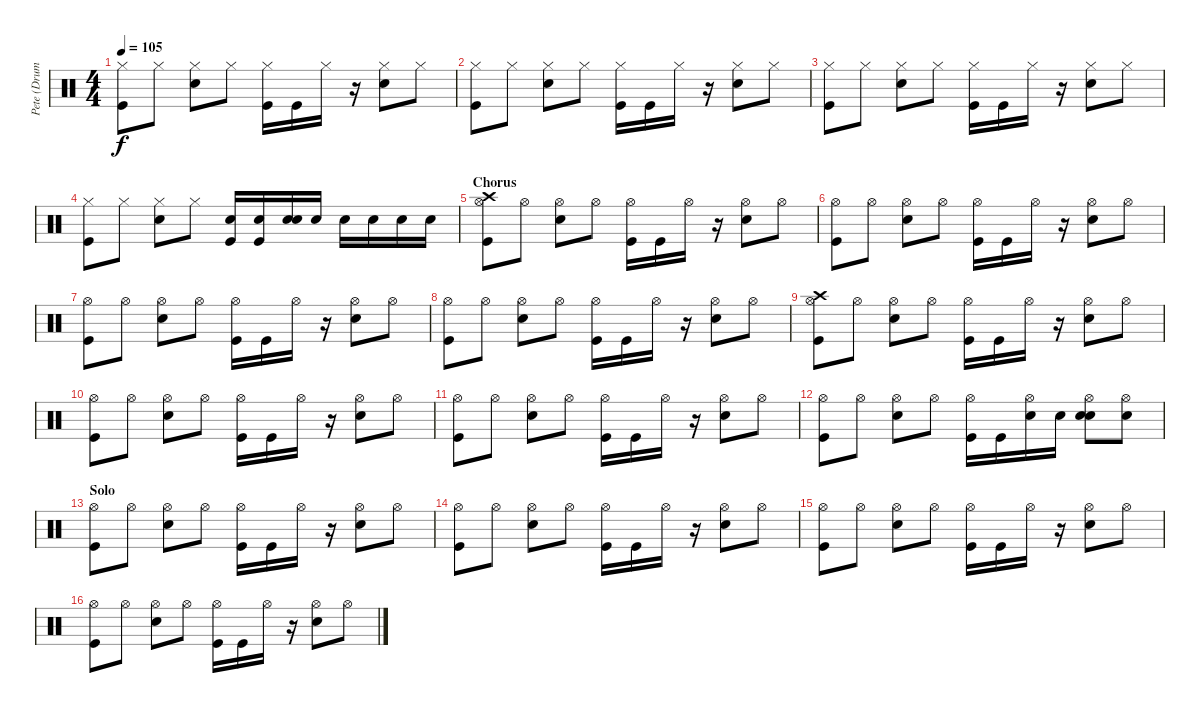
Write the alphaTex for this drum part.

\track ("Pete (Drums)" "Pete (Drum") {instrument percussion}
\staff {score}
\articulation defaults
\ts (4 4)
\tempo 105
\clef neutral
\ks c
("Hi-Hat (closed)" "Kick (hit)").8{dy f} "Hi-Hat (closed)".8 ("Hi-Hat (closed)" "Snare (hit) 2").8 "Hi-Hat (closed)".8 ("Hi-Hat (closed)" "Kick (hit)").16 "Kick (hit)".16 "Hi-Hat (closed)".16 r.16 ("Hi-Hat (closed)" "Snare (hit) 2").8 "Hi-Hat (closed)".8 |
("Hi-Hat (closed)" "Kick (hit)").8 "Hi-Hat (closed)".8 ("Hi-Hat (closed)" "Snare (hit) 2").8 "Hi-Hat (closed)".8 ("Hi-Hat (closed)" "Kick (hit)").16 "Kick (hit)".16 "Hi-Hat (closed)".16 r.16 ("Hi-Hat (closed)" "Snare (hit) 2").8 "Hi-Hat (closed)".8 |
("Hi-Hat (closed)" "Kick (hit)").8 "Hi-Hat (closed)".8 ("Hi-Hat (closed)" "Snare (hit) 2").8 "Hi-Hat (closed)".8 ("Hi-Hat (closed)" "Kick (hit)").16 "Kick (hit)".16 "Hi-Hat (closed)".16 r.16 ("Hi-Hat (closed)" "Snare (hit) 2").8 "Hi-Hat (closed)".8 |
("Hi-Hat (closed)" "Kick (hit)").8 "Hi-Hat (closed)".8 ("Hi-Hat (closed)" "Snare (hit) 2").8 "Hi-Hat (closed)".8 ("Snare (hit) 2" "Kick (hit)").16 ("Snare (hit) 2" "Kick (hit)").16 ("Snare (hit) 2" "Snare (hit) 2").16 "Snare (hit) 2".16 "Snare (hit) 2".16 "Snare (hit) 2".16 "Snare (hit) 2".16 "Snare (hit) 2".16 |
\section ("" "Chorus")
("Hi-Hat (open)" "Crash high (hit)" "Kick (hit)").8 "Hi-Hat (open)".8 ("Hi-Hat (open)" "Snare (hit) 2").8 "Hi-Hat (open)".8 ("Hi-Hat (open)" "Kick (hit)").16 "Kick (hit)".16 "Hi-Hat (open)".16 r.16 ("Hi-Hat (open)" "Snare (hit) 2").8 "Hi-Hat (open)".8 |
("Hi-Hat (open)" "Kick (hit)").8 "Hi-Hat (open)".8 ("Hi-Hat (open)" "Snare (hit) 2").8 "Hi-Hat (open)".8 ("Hi-Hat (open)" "Kick (hit)").16 "Kick (hit)".16 "Hi-Hat (open)".16 r.16 ("Hi-Hat (open)" "Snare (hit) 2").8 "Hi-Hat (open)".8 |
("Hi-Hat (open)" "Kick (hit)").8 "Hi-Hat (open)".8 ("Hi-Hat (open)" "Snare (hit) 2").8 "Hi-Hat (open)".8 ("Hi-Hat (open)" "Kick (hit)").16 "Kick (hit)".16 "Hi-Hat (open)".16 r.16 ("Hi-Hat (open)" "Snare (hit) 2").8 "Hi-Hat (open)".8 |
("Hi-Hat (open)" "Kick (hit)").8 "Hi-Hat (open)".8 ("Hi-Hat (open)" "Snare (hit) 2").8 "Hi-Hat (open)".8 ("Hi-Hat (open)" "Kick (hit)").16 "Kick (hit)".16 "Hi-Hat (open)".16 r.16 ("Hi-Hat (open)" "Snare (hit) 2").8 "Hi-Hat (open)".8 |
("Hi-Hat (open)" "Crash high (hit)" "Kick (hit)").8 "Hi-Hat (open)".8 ("Hi-Hat (open)" "Snare (hit) 2").8 "Hi-Hat (open)".8 ("Hi-Hat (open)" "Kick (hit)").16 "Kick (hit)".16 "Hi-Hat (open)".16 r.16 ("Hi-Hat (open)" "Snare (hit) 2").8 "Hi-Hat (open)".8 |
("Hi-Hat (open)" "Kick (hit)").8 "Hi-Hat (open)".8 ("Hi-Hat (open)" "Snare (hit) 2").8 "Hi-Hat (open)".8 ("Hi-Hat (open)" "Kick (hit)").16 "Kick (hit)".16 "Hi-Hat (open)".16 r.16 ("Hi-Hat (open)" "Snare (hit) 2").8 "Hi-Hat (open)".8 |
("Hi-Hat (open)" "Kick (hit)").8 "Hi-Hat (open)".8 ("Hi-Hat (open)" "Snare (hit) 2").8 "Hi-Hat (open)".8 ("Hi-Hat (open)" "Kick (hit)").16 "Kick (hit)".16 "Hi-Hat (open)".16 r.16 ("Hi-Hat (open)" "Snare (hit) 2").8 "Hi-Hat (open)".8 |
("Hi-Hat (open)" "Kick (hit)").8 "Hi-Hat (open)".8 ("Hi-Hat (open)" "Snare (hit) 2").8 "Hi-Hat (open)".8 ("Hi-Hat (open)" "Kick (hit)").16 "Kick (hit)".16 ("Hi-Hat (open)" "Snare (hit) 2").16 "Snare (hit) 2".16 ("Hi-Hat (open)" "Snare (hit) 2" "Snare (hit) 2").8 ("Hi-Hat (open)" "Snare (hit) 2").8 |
\section ("" "Solo")
("Hi-Hat (open)" "Kick (hit)").8 "Hi-Hat (open)".8 ("Hi-Hat (open)" "Snare (hit) 2").8 "Hi-Hat (open)".8 ("Hi-Hat (open)" "Kick (hit)").16 "Kick (hit)".16 "Hi-Hat (open)".16 r.16 ("Hi-Hat (open)" "Snare (hit) 2").8 "Hi-Hat (open)".8 |
("Hi-Hat (open)" "Kick (hit)").8 "Hi-Hat (open)".8 ("Hi-Hat (open)" "Snare (hit) 2").8 "Hi-Hat (open)".8 ("Hi-Hat (open)" "Kick (hit)").16 "Kick (hit)".16 "Hi-Hat (open)".16 r.16 ("Hi-Hat (open)" "Snare (hit) 2").8 "Hi-Hat (open)".8 |
("Hi-Hat (open)" "Kick (hit)").8 "Hi-Hat (open)".8 ("Hi-Hat (open)" "Snare (hit) 2").8 "Hi-Hat (open)".8 ("Hi-Hat (open)" "Kick (hit)").16 "Kick (hit)".16 "Hi-Hat (open)".16 r.16 ("Hi-Hat (open)" "Snare (hit) 2").8 "Hi-Hat (open)".8 |
("Hi-Hat (open)" "Kick (hit)").8 "Hi-Hat (open)".8 ("Hi-Hat (open)" "Snare (hit) 2").8 "Hi-Hat (open)".8 ("Hi-Hat (open)" "Kick (hit)").16 "Kick (hit)".16 "Hi-Hat (open)".16 r.16 ("Hi-Hat (open)" "Snare (hit) 2").8 "Hi-Hat (open)".8
